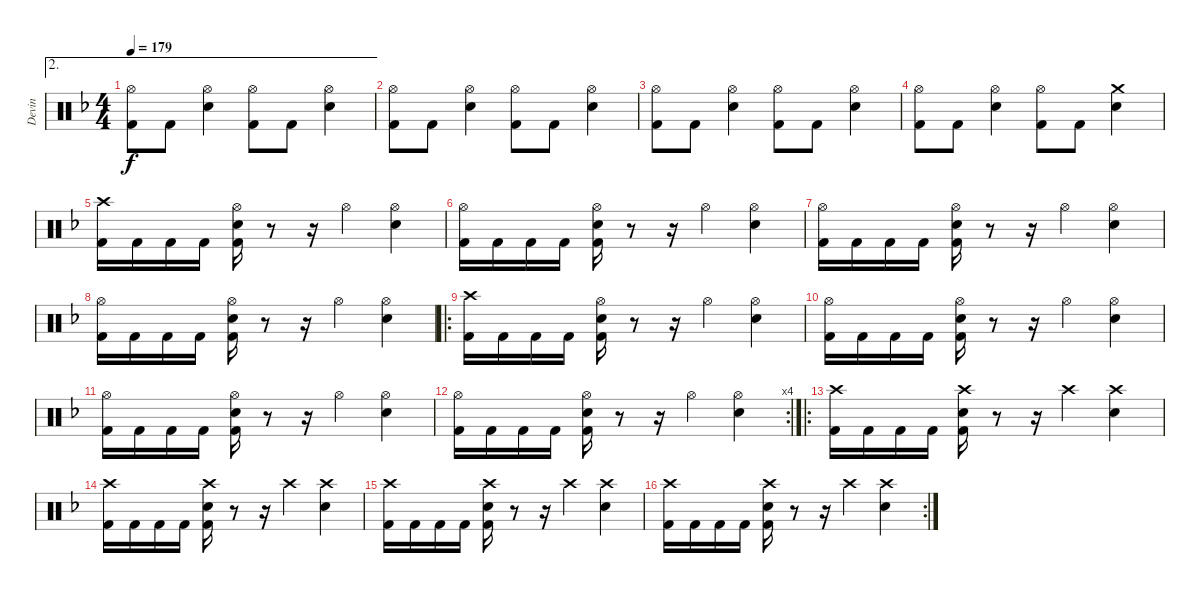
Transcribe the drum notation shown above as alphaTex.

\track ("Devin" "Devin") {instrument percussion}
\staff {score}
\articulation defaults
\ae 2
\ts (4 4)
\tempo 179
\clef neutral
\ks f
("Hi-Hat (open)" "Kick (hit) 2").8{dy f} "Kick (hit) 2".8 ("Hi-Hat (open)" "Electric Snare (hit)").4 ("Hi-Hat (open)" "Kick (hit) 2").8 "Kick (hit) 2".8 ("Hi-Hat (open)" "Electric Snare (hit)").4 |
("Hi-Hat (open)" "Kick (hit) 2").8 "Kick (hit) 2".8 ("Hi-Hat (open)" "Electric Snare (hit)").4 ("Hi-Hat (open)" "Kick (hit) 2").8 "Kick (hit) 2".8 ("Hi-Hat (open)" "Electric Snare (hit)").4 |
("Hi-Hat (open)" "Kick (hit) 2").8 "Kick (hit) 2".8 ("Hi-Hat (open)" "Electric Snare (hit)").4 ("Hi-Hat (open)" "Kick (hit) 2").8 "Kick (hit) 2".8 ("Hi-Hat (open)" "Electric Snare (hit)").4 |
("Hi-Hat (open)" "Kick (hit) 2").8 "Kick (hit) 2".8 ("Hi-Hat (open)" "Electric Snare (hit)").4 ("Hi-Hat (open)" "Kick (hit) 2").8 "Kick (hit) 2".8 ("Crash medium (hit)" "Electric Snare (hit)").4 |
("Crash high (hit)" "Kick (hit) 2").16 "Kick (hit) 2".16 "Kick (hit) 2".16 "Kick (hit) 2".16 ("Hi-Hat (open)" "Electric Snare (hit)" "Kick (hit) 2").16 r.8 r.16 "Hi-Hat (open)".4 ("Hi-Hat (open)" "Electric Snare (hit)").4 |
("Hi-Hat (open)" "Kick (hit) 2").16 "Kick (hit) 2".16 "Kick (hit) 2".16 "Kick (hit) 2".16 ("Hi-Hat (open)" "Electric Snare (hit)" "Kick (hit) 2").16 r.8 r.16 "Hi-Hat (open)".4 ("Hi-Hat (open)" "Electric Snare (hit)").4 |
("Hi-Hat (open)" "Kick (hit) 2").16 "Kick (hit) 2".16 "Kick (hit) 2".16 "Kick (hit) 2".16 ("Hi-Hat (open)" "Electric Snare (hit)" "Kick (hit) 2").16 r.8 r.16 "Hi-Hat (open)".4 ("Hi-Hat (open)" "Electric Snare (hit)").4 |
("Hi-Hat (open)" "Kick (hit) 2").16 "Kick (hit) 2".16 "Kick (hit) 2".16 "Kick (hit) 2".16 ("Hi-Hat (open)" "Electric Snare (hit)" "Kick (hit) 2").16 r.8 r.16 "Hi-Hat (open)".4 ("Hi-Hat (open)" "Electric Snare (hit)").4 |
\ro
("Crash high (hit)" "Kick (hit) 2").16 "Kick (hit) 2".16 "Kick (hit) 2".16 "Kick (hit) 2".16 ("Hi-Hat (open)" "Electric Snare (hit)" "Kick (hit) 2").16 r.8 r.16 "Hi-Hat (open)".4 ("Hi-Hat (open)" "Electric Snare (hit)").4 |
("Hi-Hat (open)" "Kick (hit) 2").16 "Kick (hit) 2".16 "Kick (hit) 2".16 "Kick (hit) 2".16 ("Hi-Hat (open)" "Electric Snare (hit)" "Kick (hit) 2").16 r.8 r.16 "Hi-Hat (open)".4 ("Hi-Hat (open)" "Electric Snare (hit)").4 |
("Hi-Hat (open)" "Kick (hit) 2").16 "Kick (hit) 2".16 "Kick (hit) 2".16 "Kick (hit) 2".16 ("Hi-Hat (open)" "Electric Snare (hit)" "Kick (hit) 2").16 r.8 r.16 "Hi-Hat (open)".4 ("Hi-Hat (open)" "Electric Snare (hit)").4 |
\rc 4
("Hi-Hat (open)" "Kick (hit) 2").16 "Kick (hit) 2".16 "Kick (hit) 2".16 "Kick (hit) 2".16 ("Hi-Hat (open)" "Electric Snare (hit)" "Kick (hit) 2").16 r.8 r.16 "Hi-Hat (open)".4 ("Hi-Hat (open)" "Electric Snare (hit)").4 |
\ro
("Crash high (hit)" "Kick (hit) 2").16 "Kick (hit) 2".16 "Kick (hit) 2".16 "Kick (hit) 2".16 ("Crash high (hit)" "Electric Snare (hit)" "Kick (hit) 2").16 r.8 r.16 "Crash high (hit)".4 ("Crash high (hit)" "Electric Snare (hit)").4 |
("Crash high (hit)" "Kick (hit) 2").16 "Kick (hit) 2".16 "Kick (hit) 2".16 "Kick (hit) 2".16 ("Crash high (hit)" "Electric Snare (hit)" "Kick (hit) 2").16 r.8 r.16 "Crash high (hit)".4 ("Crash high (hit)" "Electric Snare (hit)").4 |
("Crash high (hit)" "Kick (hit) 2").16 "Kick (hit) 2".16 "Kick (hit) 2".16 "Kick (hit) 2".16 ("Crash high (hit)" "Electric Snare (hit)" "Kick (hit) 2").16 r.8 r.16 "Crash high (hit)".4 ("Crash high (hit)" "Electric Snare (hit)").4 |
\rc 2
("Crash high (hit)" "Kick (hit) 2").16 "Kick (hit) 2".16 "Kick (hit) 2".16 "Kick (hit) 2".16 ("Crash high (hit)" "Electric Snare (hit)" "Kick (hit) 2").16 r.8 r.16 "Crash high (hit)".4 ("Crash high (hit)" "Electric Snare (hit)").4
